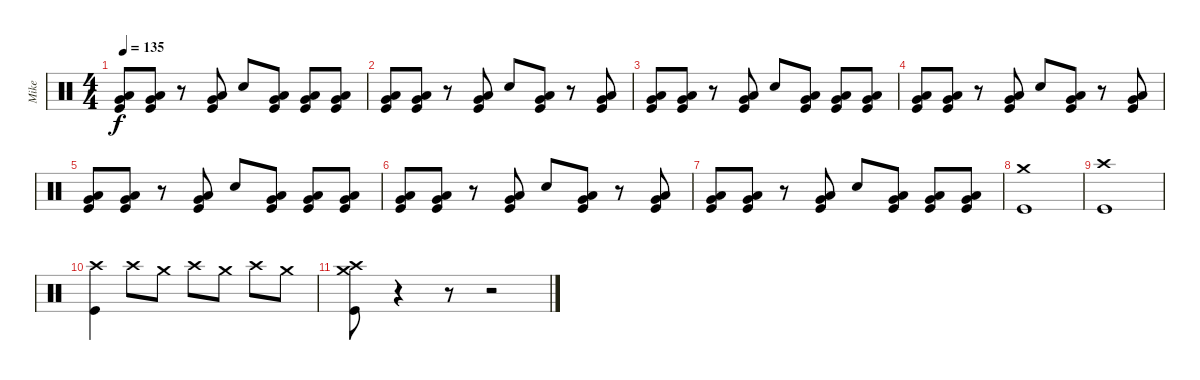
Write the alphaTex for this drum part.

\track ("Mike" "Mike") {instrument percussion}
\staff {score}
\articulation defaults
\ts (4 4)
\tempo 135
\clef neutral
\ks c
("Very Low Tom (hit)" "Low Tom (hit)" "Kick (hit)").8{dy f} ("Very Low Tom (hit)" "Low Tom (hit)" "Kick (hit)").8 r.8 ("Very Low Tom (hit)" "Low Tom (hit)" "Kick (hit)").8 "Electric Snare (hit)".8 ("Very Low Tom (hit)" "Low Tom (hit)" "Kick (hit)").8 ("Very Low Tom (hit)" "Low Tom (hit)" "Kick (hit)").8 ("Very Low Tom (hit)" "Low Tom (hit)" "Kick (hit)").8 |
("Very Low Tom (hit)" "Low Tom (hit)" "Kick (hit)").8 ("Very Low Tom (hit)" "Low Tom (hit)" "Kick (hit)").8 r.8 ("Very Low Tom (hit)" "Low Tom (hit)" "Kick (hit)").8 "Electric Snare (hit)".8 ("Very Low Tom (hit)" "Low Tom (hit)" "Kick (hit)").8 r.8 ("Very Low Tom (hit)" "Low Tom (hit)" "Kick (hit)").8 |
("Very Low Tom (hit)" "Low Tom (hit)" "Kick (hit)").8 ("Very Low Tom (hit)" "Low Tom (hit)" "Kick (hit)").8 r.8 ("Very Low Tom (hit)" "Low Tom (hit)" "Kick (hit)").8 "Electric Snare (hit)".8 ("Very Low Tom (hit)" "Low Tom (hit)" "Kick (hit)").8 ("Very Low Tom (hit)" "Low Tom (hit)" "Kick (hit)").8 ("Very Low Tom (hit)" "Low Tom (hit)" "Kick (hit)").8 |
("Very Low Tom (hit)" "Low Tom (hit)" "Kick (hit)").8 ("Very Low Tom (hit)" "Low Tom (hit)" "Kick (hit)").8 r.8 ("Very Low Tom (hit)" "Low Tom (hit)" "Kick (hit)").8 "Electric Snare (hit)".8 ("Very Low Tom (hit)" "Low Tom (hit)" "Kick (hit)").8 r.8 ("Very Low Tom (hit)" "Low Tom (hit)" "Kick (hit)").8 |
("Very Low Tom (hit)" "Low Tom (hit)" "Kick (hit)").8 ("Very Low Tom (hit)" "Low Tom (hit)" "Kick (hit)").8 r.8 ("Very Low Tom (hit)" "Low Tom (hit)" "Kick (hit)").8 "Electric Snare (hit)".8 ("Very Low Tom (hit)" "Low Tom (hit)" "Kick (hit)").8 ("Very Low Tom (hit)" "Low Tom (hit)" "Kick (hit)").8 ("Very Low Tom (hit)" "Low Tom (hit)" "Kick (hit)").8 |
("Very Low Tom (hit)" "Low Tom (hit)" "Kick (hit)").8 ("Very Low Tom (hit)" "Low Tom (hit)" "Kick (hit)").8 r.8 ("Very Low Tom (hit)" "Low Tom (hit)" "Kick (hit)").8 "Electric Snare (hit)".8 ("Very Low Tom (hit)" "Low Tom (hit)" "Kick (hit)").8 r.8 ("Very Low Tom (hit)" "Low Tom (hit)" "Kick (hit)").8 |
("Very Low Tom (hit)" "Low Tom (hit)" "Kick (hit)").8 ("Very Low Tom (hit)" "Low Tom (hit)" "Kick (hit)").8 r.8 ("Very Low Tom (hit)" "Low Tom (hit)" "Kick (hit)").8 "Electric Snare (hit)".8 ("Very Low Tom (hit)" "Low Tom (hit)" "Kick (hit)").8 ("Very Low Tom (hit)" "Low Tom (hit)" "Kick (hit)").8 ("Very Low Tom (hit)" "Low Tom (hit)" "Kick (hit)").8 |
("Crash medium (hit)" "Kick (hit)").1 |
("Crash high (hit)" "Kick (hit)").1 |
("Crash high (hit)" "Kick (hit)").4 "Crash high (hit)".8 "Crash medium (hit)".8 "Crash high (hit)".8 "Crash medium (hit)".8 "Crash high (hit)".8 "Crash medium (hit)".8 |
("Crash high (hit)" "Crash medium (hit)" "Kick (hit)").8 r.4 r.8 r.2
